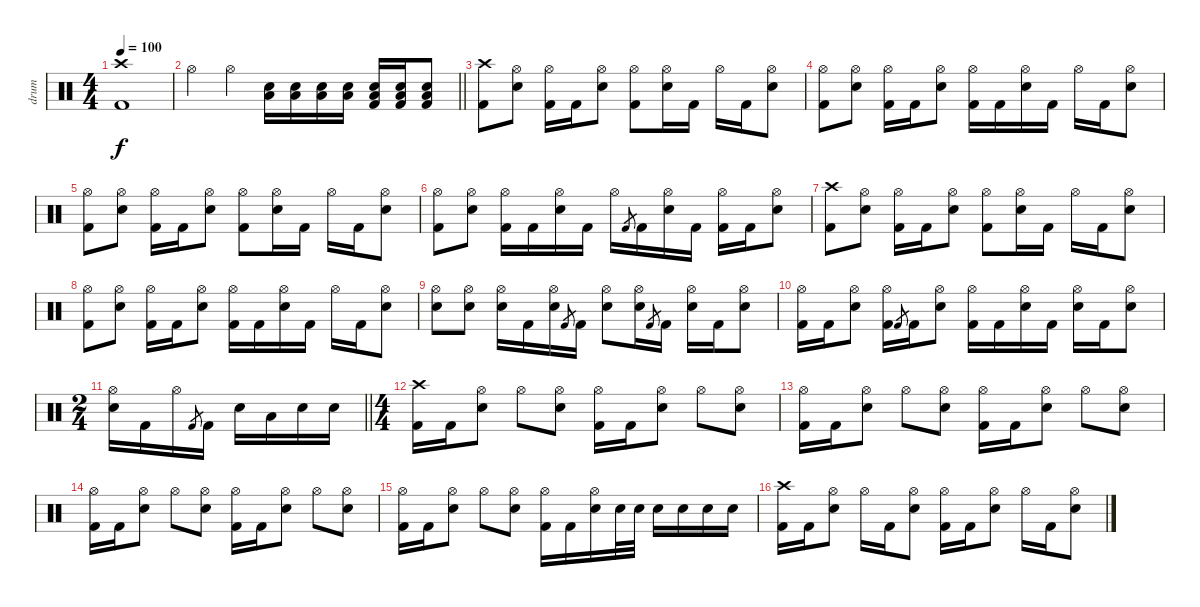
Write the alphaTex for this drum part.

\track ("drum" "drum") {instrument percussion}
\staff {score}
\articulation defaults
\ts (4 4)
\tempo 100
\clef neutral
\ks c
("Crash high (hit)" "Kick (hit) 2").1{dy f} |
\barLineRight lightlight "Hi-Hat (open)".4 "Hi-Hat (open)".4
("Low Floor Tom (hit)" "Electric Snare (hit)").16 ("Low Floor Tom (hit)" "Electric Snare (hit)").16 ("Low Floor Tom (hit)" "Electric Snare (hit)").16 ("Low Floor Tom (hit)" "Electric Snare (hit)").16 ("Low Floor Tom (hit)" "Electric Snare (hit)" "Kick (hit) 2").16 ("Low Floor Tom (hit)" "Electric Snare (hit)" "Kick (hit) 2").16 ("Low Floor Tom (hit)" "Electric Snare (hit)" "Kick (hit) 2").8 |
("Crash high (hit)" "Kick (hit) 2").8 ("Hi-Hat (open)" "Electric Snare (hit)").8 ("Hi-Hat (open)" "Kick (hit) 2").16 "Kick (hit) 2".16 ("Hi-Hat (open)" "Electric Snare (hit)").8 ("Hi-Hat (open)" "Kick (hit) 2").8 ("Hi-Hat (open)" "Electric Snare (hit)").16 "Kick (hit) 2".16 "Hi-Hat (open)".16 "Kick (hit) 2".16 ("Hi-Hat (open)" "Electric Snare (hit)").8 |
("Hi-Hat (open)" "Kick (hit) 2").8 ("Hi-Hat (open)" "Electric Snare (hit)").8 ("Hi-Hat (open)" "Kick (hit) 2").16 "Kick (hit) 2".16 ("Hi-Hat (open)" "Electric Snare (hit)").8 ("Hi-Hat (open)" "Kick (hit) 2").16 "Kick (hit) 2".16 ("Hi-Hat (open)" "Electric Snare (hit)").16 "Kick (hit) 2".16 "Hi-Hat (open)".16 "Kick (hit) 2".16 ("Hi-Hat (open)" "Electric Snare (hit)").8 |
("Hi-Hat (open)" "Kick (hit) 2").8 ("Hi-Hat (open)" "Electric Snare (hit)").8 ("Hi-Hat (open)" "Kick (hit) 2").16 "Kick (hit) 2".16 ("Hi-Hat (open)" "Electric Snare (hit)").8 ("Hi-Hat (open)" "Kick (hit) 2").8 ("Hi-Hat (open)" "Electric Snare (hit)").16 "Kick (hit) 2".16 "Hi-Hat (open)".16 "Kick (hit) 2".16 ("Hi-Hat (open)" "Electric Snare (hit)").8 |
("Hi-Hat (open)" "Kick (hit) 2").8 ("Hi-Hat (open)" "Electric Snare (hit)").8 ("Hi-Hat (open)" "Kick (hit) 2").16 "Kick (hit) 2".16 ("Hi-Hat (open)" "Electric Snare (hit)").16 "Kick (hit) 2".16 "Hi-Hat (open)".16 "Kick (hit) 2".8{gr} "Kick (hit) 2".16 ("Hi-Hat (open)" "Electric Snare (hit)").16 "Kick (hit) 2".16 ("Hi-Hat (open)" "Kick (hit) 2").16 "Kick (hit) 2".16 ("Hi-Hat (open)" "Electric Snare (hit)").8 |
("Crash high (hit)" "Kick (hit) 2").8 ("Hi-Hat (open)" "Electric Snare (hit)").8 ("Hi-Hat (open)" "Kick (hit) 2").16 "Kick (hit) 2".16 ("Hi-Hat (open)" "Electric Snare (hit)").8 ("Hi-Hat (open)" "Kick (hit) 2").8 ("Hi-Hat (open)" "Electric Snare (hit)").16 "Kick (hit) 2".16 "Hi-Hat (open)".16 "Kick (hit) 2".16 ("Hi-Hat (open)" "Electric Snare (hit)").8 |
("Hi-Hat (open)" "Kick (hit) 2").8 ("Hi-Hat (open)" "Electric Snare (hit)").8 ("Hi-Hat (open)" "Kick (hit) 2").16 "Kick (hit) 2".16 ("Hi-Hat (open)" "Electric Snare (hit)").8 ("Hi-Hat (open)" "Kick (hit) 2").16 "Kick (hit) 2".16 ("Hi-Hat (open)" "Electric Snare (hit)").16 "Kick (hit) 2".16 "Hi-Hat (open)".16 "Kick (hit) 2".16 ("Hi-Hat (open)" "Electric Snare (hit)").8 |
("Hi-Hat (open)" "Electric Snare (hit)").8 ("Hi-Hat (open)" "Electric Snare (hit)").8 ("Hi-Hat (open)" "Electric Snare (hit)").16 "Kick (hit) 2".16 ("Hi-Hat (open)" "Electric Snare (hit)").16 "Kick (hit) 2".8{gr} "Kick (hit) 2".16 ("Hi-Hat (open)" "Electric Snare (hit)").8 ("Hi-Hat (open)" "Electric Snare (hit)").16 "Kick (hit) 2".8{gr} "Kick (hit) 2".16 ("Hi-Hat (open)" "Electric Snare (hit)").16 "Kick (hit) 2".16 ("Hi-Hat (open)" "Electric Snare (hit)").8 |
("Hi-Hat (open)" "Kick (hit) 2").16 "Kick (hit) 2".16 ("Hi-Hat (open)" "Electric Snare (hit)").8 ("Hi-Hat (open)" "Kick (hit) 2").16 "Kick (hit) 2".8{gr} "Kick (hit) 2".16 ("Hi-Hat (open)" "Electric Snare (hit)").8 ("Hi-Hat (open)" "Kick (hit) 2").16 "Kick (hit) 2".16 ("Hi-Hat (open)" "Electric Snare (hit)").16 "Kick (hit) 2".16 ("Hi-Hat (open)" "Electric Snare (hit)").16 "Kick (hit) 2".16 ("Hi-Hat (open)" "Electric Snare (hit)").8 |
\ts (2 4)
\barLineRight lightlight
("Hi-Hat (open)" "Electric Snare (hit)").16 "Kick (hit) 2".16 "Hi-Hat (open)".16 "Kick (hit) 2".8{gr} "Kick (hit) 2".16 "Electric Snare (hit)".16 "Low Tom (hit)".16 "Electric Snare (hit)".16 "Electric Snare (hit)".16 |
\ts (4 4)
("Crash high (hit)" "Kick (hit) 2").16 "Kick (hit) 2".16 ("Hi-Hat (open)" "Electric Snare (hit)").8 "Hi-Hat (open)".8 ("Hi-Hat (open)" "Electric Snare (hit)").8 ("Hi-Hat (open)" "Kick (hit) 2").16 "Kick (hit) 2".16 ("Hi-Hat (open)" "Electric Snare (hit)").8 "Hi-Hat (open)".8 ("Hi-Hat (open)" "Electric Snare (hit)").8 |
("Hi-Hat (open)" "Kick (hit) 2").16 "Kick (hit) 2".16 ("Hi-Hat (open)" "Electric Snare (hit)").8 "Hi-Hat (open)".8 ("Hi-Hat (open)" "Electric Snare (hit)").8 ("Hi-Hat (open)" "Kick (hit) 2").16 "Kick (hit) 2".16 ("Hi-Hat (open)" "Electric Snare (hit)").8 "Hi-Hat (open)".8 ("Hi-Hat (open)" "Electric Snare (hit)").8 |
("Hi-Hat (open)" "Kick (hit) 2").16 "Kick (hit) 2".16 ("Hi-Hat (open)" "Electric Snare (hit)").8 "Hi-Hat (open)".8 ("Hi-Hat (open)" "Electric Snare (hit)").8 ("Hi-Hat (open)" "Kick (hit) 2").16 "Kick (hit) 2".16 ("Hi-Hat (open)" "Electric Snare (hit)").8 "Hi-Hat (open)".8 ("Hi-Hat (open)" "Electric Snare (hit)").8 |
("Hi-Hat (open)" "Kick (hit) 2").16 "Kick (hit) 2".16 ("Hi-Hat (open)" "Electric Snare (hit)").8 "Hi-Hat (open)".8 ("Hi-Hat (open)" "Electric Snare (hit)").8 ("Hi-Hat (open)" "Kick (hit) 2").16 "Kick (hit) 2".16 ("Hi-Hat (open)" "Electric Snare (hit)").16 "Electric Snare (hit)".32 "Electric Snare (hit)".32 "Electric Snare (hit)".16 "Electric Snare (hit)".16 "Electric Snare (hit)".16 "Electric Snare (hit)".16 |
("Crash high (hit)" "Kick (hit) 2").16 "Kick (hit) 2".16 ("Hi-Hat (open)" "Electric Snare (hit)").8 "Hi-Hat (open)".16 "Kick (hit) 2".16 ("Hi-Hat (open)" "Electric Snare (hit)").8 ("Hi-Hat (open)" "Kick (hit) 2").16 "Kick (hit) 2".16 ("Hi-Hat (open)" "Electric Snare (hit)").8 "Hi-Hat (open)".16 "Kick (hit) 2".16 ("Hi-Hat (open)" "Electric Snare (hit)").8
